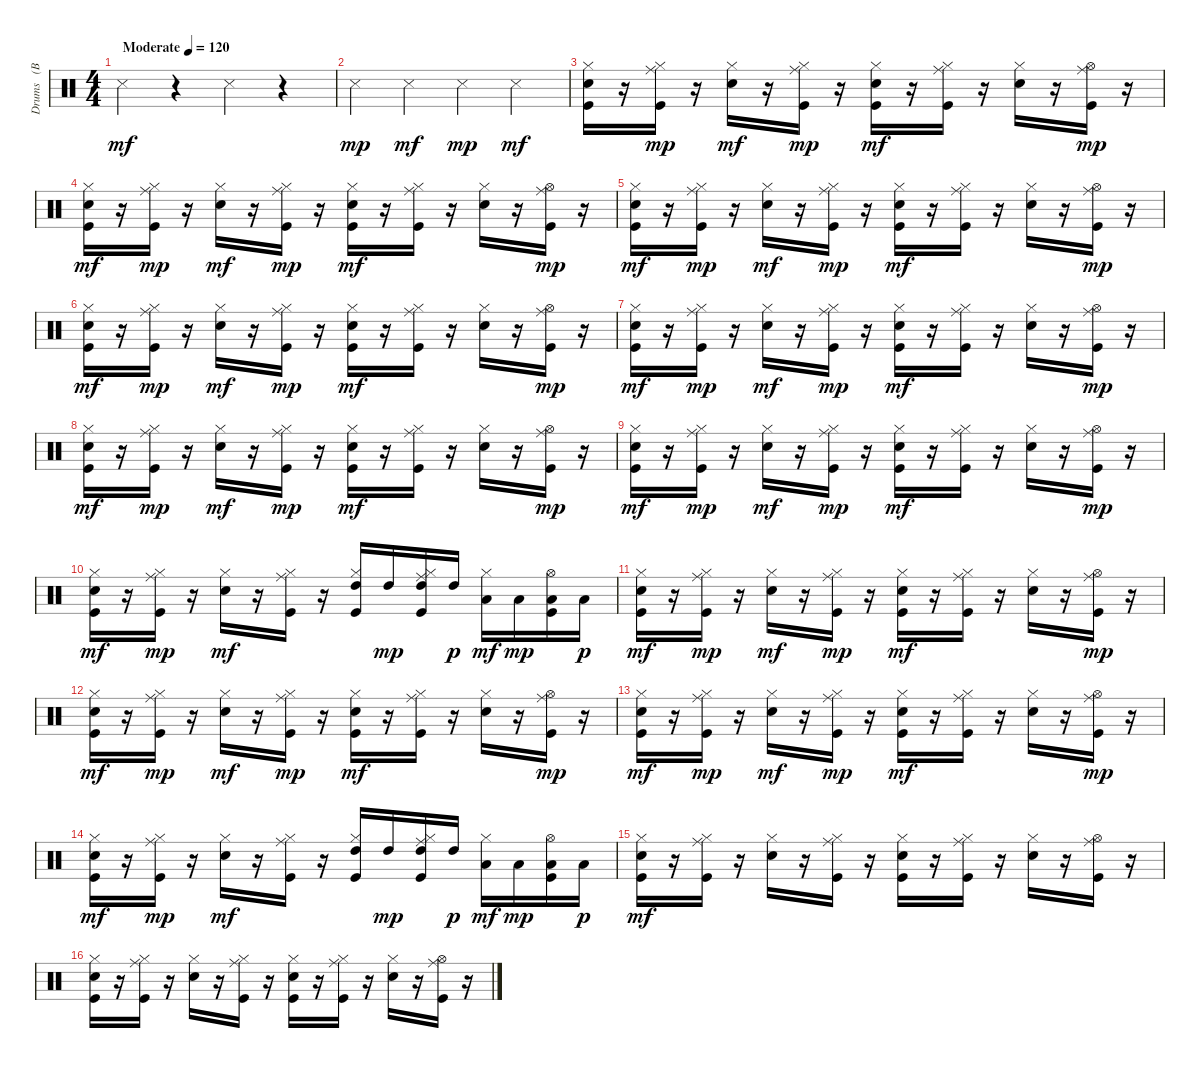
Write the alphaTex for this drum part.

\track ("Drums   (BB)" "Drums   (B") {instrument percussion}
\staff {score}
\articulation defaults
\ts (4 4)
\tempo (120 "Moderate")
\clef neutral
\ks c "Snare (side stick) 3".4{dy mf}
r.4 "Snare (side stick) 3".4 r.4 |
"Snare (side stick) 3".4{dy mp} "Snare (side stick) 3".4{dy mf} "Snare (side stick) 3".4{dy mp} "Snare (side stick) 3".4{dy mf} |
("Kick (hit)" "Electric Snare (hit)" "Hi-Hat (closed)").16 r.16 ("Kick (hit)" "Hi-Hat (closed)" "Ride (middle)").16{dy mp} r.16 ("Electric Snare (hit)" "Hi-Hat (closed)").16{dy mf} r.16 ("Kick (hit)" "Hi-Hat (closed)" "Ride (middle)").16{dy mp} r.16 ("Kick (hit)" "Electric Snare (hit)" "Hi-Hat (closed)").16{dy mf} r.16 ("Kick (hit)" "Hi-Hat (closed)" "Ride (middle)").16 r.16 ("Electric Snare (hit)" "Hi-Hat (closed)").16 r.16 ("Kick (hit)" "Hi-Hat (open)" "Ride (middle)").16{dy mp} r.16 |
("Kick (hit)" "Electric Snare (hit)" "Hi-Hat (closed)").16{dy mf} r.16 ("Kick (hit)" "Hi-Hat (closed)" "Ride (middle)").16{dy mp} r.16 ("Electric Snare (hit)" "Hi-Hat (closed)").16{dy mf} r.16 ("Kick (hit)" "Hi-Hat (closed)" "Ride (middle)").16{dy mp} r.16 ("Kick (hit)" "Electric Snare (hit)" "Hi-Hat (closed)").16{dy mf} r.16 ("Kick (hit)" "Hi-Hat (closed)" "Ride (middle)").16 r.16 ("Electric Snare (hit)" "Hi-Hat (closed)").16 r.16 ("Kick (hit)" "Hi-Hat (open)" "Ride (middle)").16{dy mp} r.16 |
("Kick (hit)" "Electric Snare (hit)" "Hi-Hat (closed)").16{dy mf} r.16 ("Kick (hit)" "Hi-Hat (closed)" "Ride (middle)").16{dy mp} r.16 ("Electric Snare (hit)" "Hi-Hat (closed)").16{dy mf} r.16 ("Kick (hit)" "Hi-Hat (closed)" "Ride (middle)").16{dy mp} r.16 ("Kick (hit)" "Electric Snare (hit)" "Hi-Hat (closed)").16{dy mf} r.16 ("Kick (hit)" "Hi-Hat (closed)" "Ride (middle)").16 r.16 ("Electric Snare (hit)" "Hi-Hat (closed)").16 r.16 ("Kick (hit)" "Hi-Hat (open)" "Ride (middle)").16{dy mp} r.16 |
("Kick (hit)" "Electric Snare (hit)" "Hi-Hat (closed)").16{dy mf} r.16 ("Kick (hit)" "Hi-Hat (closed)" "Ride (middle)").16{dy mp} r.16 ("Electric Snare (hit)" "Hi-Hat (closed)").16{dy mf} r.16 ("Kick (hit)" "Hi-Hat (closed)" "Ride (middle)").16{dy mp} r.16 ("Kick (hit)" "Electric Snare (hit)" "Hi-Hat (closed)").16{dy mf} r.16 ("Kick (hit)" "Hi-Hat (closed)" "Ride (middle)").16 r.16 ("Electric Snare (hit)" "Hi-Hat (closed)").16 r.16 ("Kick (hit)" "Hi-Hat (open)" "Ride (middle)").16{dy mp} r.16 |
("Kick (hit)" "Electric Snare (hit)" "Hi-Hat (closed)").16{dy mf} r.16 ("Kick (hit)" "Hi-Hat (closed)" "Ride (middle)").16{dy mp} r.16 ("Electric Snare (hit)" "Hi-Hat (closed)").16{dy mf} r.16 ("Kick (hit)" "Hi-Hat (closed)" "Ride (middle)").16{dy mp} r.16 ("Kick (hit)" "Electric Snare (hit)" "Hi-Hat (closed)").16{dy mf} r.16 ("Kick (hit)" "Hi-Hat (closed)" "Ride (middle)").16 r.16 ("Electric Snare (hit)" "Hi-Hat (closed)").16 r.16 ("Kick (hit)" "Hi-Hat (open)" "Ride (middle)").16{dy mp} r.16 |
("Kick (hit)" "Electric Snare (hit)" "Hi-Hat (closed)").16{dy mf} r.16 ("Kick (hit)" "Hi-Hat (closed)" "Ride (middle)").16{dy mp} r.16 ("Electric Snare (hit)" "Hi-Hat (closed)").16{dy mf} r.16 ("Kick (hit)" "Hi-Hat (closed)" "Ride (middle)").16{dy mp} r.16 ("Kick (hit)" "Electric Snare (hit)" "Hi-Hat (closed)").16{dy mf} r.16 ("Kick (hit)" "Hi-Hat (closed)" "Ride (middle)").16 r.16 ("Electric Snare (hit)" "Hi-Hat (closed)").16 r.16 ("Kick (hit)" "Hi-Hat (open)" "Ride (middle)").16{dy mp} r.16 |
("Kick (hit)" "Electric Snare (hit)" "Hi-Hat (closed)").16{dy mf} r.16 ("Kick (hit)" "Hi-Hat (closed)" "Ride (middle)").16{dy mp} r.16 ("Electric Snare (hit)" "Hi-Hat (closed)").16{dy mf} r.16 ("Kick (hit)" "Hi-Hat (closed)" "Ride (middle)").16{dy mp} r.16 ("Kick (hit)" "Electric Snare (hit)" "Hi-Hat (closed)").16{dy mf} r.16 ("Kick (hit)" "Hi-Hat (closed)" "Ride (middle)").16 r.16 ("Electric Snare (hit)" "Hi-Hat (closed)").16 r.16 ("Kick (hit)" "Hi-Hat (open)" "Ride (middle)").16{dy mp} r.16 |
("Kick (hit)" "Electric Snare (hit)" "Hi-Hat (closed)").16{dy mf} r.16 ("Kick (hit)" "Hi-Hat (closed)" "Ride (middle)").16{dy mp} r.16 ("Electric Snare (hit)" "Hi-Hat (closed)").16{dy mf} r.16 ("Kick (hit)" "Hi-Hat (closed)" "Ride (middle)").16 r.16 ("Kick (hit)" "Hi-Hat (closed)" "High Tom (hit)").16 "High Tom (hit)".16{dy mp} ("Kick (hit)" "Hi-Hat (closed)" "Ride (middle)" "High Tom (hit)").16 "High Tom (hit)".16{dy p} ("Hi-Hat (closed)" "Low Tom (hit)").16{dy mf} "Low Tom (hit)".16{dy mp} ("Kick (hit)" "Hi-Hat (open)" "Low Tom (hit)").16 "Low Tom (hit)".16{dy p} |
("Kick (hit)" "Electric Snare (hit)" "Hi-Hat (closed)").16{dy mf} r.16 ("Kick (hit)" "Hi-Hat (closed)" "Ride (middle)").16{dy mp} r.16 ("Electric Snare (hit)" "Hi-Hat (closed)").16{dy mf} r.16 ("Kick (hit)" "Hi-Hat (closed)" "Ride (middle)").16{dy mp} r.16 ("Kick (hit)" "Electric Snare (hit)" "Hi-Hat (closed)").16{dy mf} r.16 ("Kick (hit)" "Hi-Hat (closed)" "Ride (middle)").16 r.16 ("Electric Snare (hit)" "Hi-Hat (closed)").16 r.16 ("Kick (hit)" "Hi-Hat (open)" "Ride (middle)").16{dy mp} r.16 |
("Kick (hit)" "Electric Snare (hit)" "Hi-Hat (closed)").16{dy mf} r.16 ("Kick (hit)" "Hi-Hat (closed)" "Ride (middle)").16{dy mp} r.16 ("Electric Snare (hit)" "Hi-Hat (closed)").16{dy mf} r.16 ("Kick (hit)" "Hi-Hat (closed)" "Ride (middle)").16{dy mp} r.16 ("Kick (hit)" "Electric Snare (hit)" "Hi-Hat (closed)").16{dy mf} r.16 ("Kick (hit)" "Hi-Hat (closed)" "Ride (middle)").16 r.16 ("Electric Snare (hit)" "Hi-Hat (closed)").16 r.16 ("Kick (hit)" "Hi-Hat (open)" "Ride (middle)").16{dy mp} r.16 |
("Kick (hit)" "Electric Snare (hit)" "Hi-Hat (closed)").16{dy mf} r.16 ("Kick (hit)" "Hi-Hat (closed)" "Ride (middle)").16{dy mp} r.16 ("Electric Snare (hit)" "Hi-Hat (closed)").16{dy mf} r.16 ("Kick (hit)" "Hi-Hat (closed)" "Ride (middle)").16{dy mp} r.16 ("Kick (hit)" "Electric Snare (hit)" "Hi-Hat (closed)").16{dy mf} r.16 ("Kick (hit)" "Hi-Hat (closed)" "Ride (middle)").16 r.16 ("Electric Snare (hit)" "Hi-Hat (closed)").16 r.16 ("Kick (hit)" "Hi-Hat (open)" "Ride (middle)").16{dy mp} r.16 |
("Kick (hit)" "Electric Snare (hit)" "Hi-Hat (closed)").16{dy mf} r.16 ("Kick (hit)" "Hi-Hat (closed)" "Ride (middle)").16{dy mp} r.16 ("Electric Snare (hit)" "Hi-Hat (closed)").16{dy mf} r.16 ("Kick (hit)" "Hi-Hat (closed)" "Ride (middle)").16 r.16 ("Kick (hit)" "Hi-Hat (closed)" "High Tom (hit)").16 "High Tom (hit)".16{dy mp} ("Kick (hit)" "Hi-Hat (closed)" "Ride (middle)" "High Tom (hit)").16 "High Tom (hit)".16{dy p} ("Hi-Hat (closed)" "Low Tom (hit)").16{dy mf} "Low Tom (hit)".16{dy mp} ("Kick (hit)" "Hi-Hat (open)" "Low Tom (hit)").16 "Low Tom (hit)".16{dy p} |
("Kick (hit)" "Electric Snare (hit)" "Hi-Hat (closed)").16{dy mf} r.16 ("Kick (hit)" "Hi-Hat (closed)" "Ride (middle)").16 r.16 ("Electric Snare (hit)" "Hi-Hat (closed)").16 r.16 ("Kick (hit)" "Hi-Hat (closed)" "Ride (middle)").16 r.16 ("Kick (hit)" "Electric Snare (hit)" "Hi-Hat (closed)").16 r.16 ("Kick (hit)" "Hi-Hat (closed)" "Ride (middle)").16 r.16 ("Electric Snare (hit)" "Hi-Hat (closed)").16 r.16 ("Kick (hit)" "Hi-Hat (open)" "Ride (middle)").16 r.16 |
("Kick (hit)" "Electric Snare (hit)" "Hi-Hat (closed)").16 r.16 ("Kick (hit)" "Hi-Hat (closed)" "Ride (middle)").16 r.16 ("Electric Snare (hit)" "Hi-Hat (closed)").16 r.16 ("Kick (hit)" "Hi-Hat (closed)" "Ride (middle)").16 r.16 ("Kick (hit)" "Electric Snare (hit)" "Hi-Hat (closed)").16 r.16 ("Kick (hit)" "Hi-Hat (closed)" "Ride (middle)").16 r.16 ("Electric Snare (hit)" "Hi-Hat (closed)").16 r.16 ("Kick (hit)" "Hi-Hat (open)" "Ride (middle)").16 r.16
